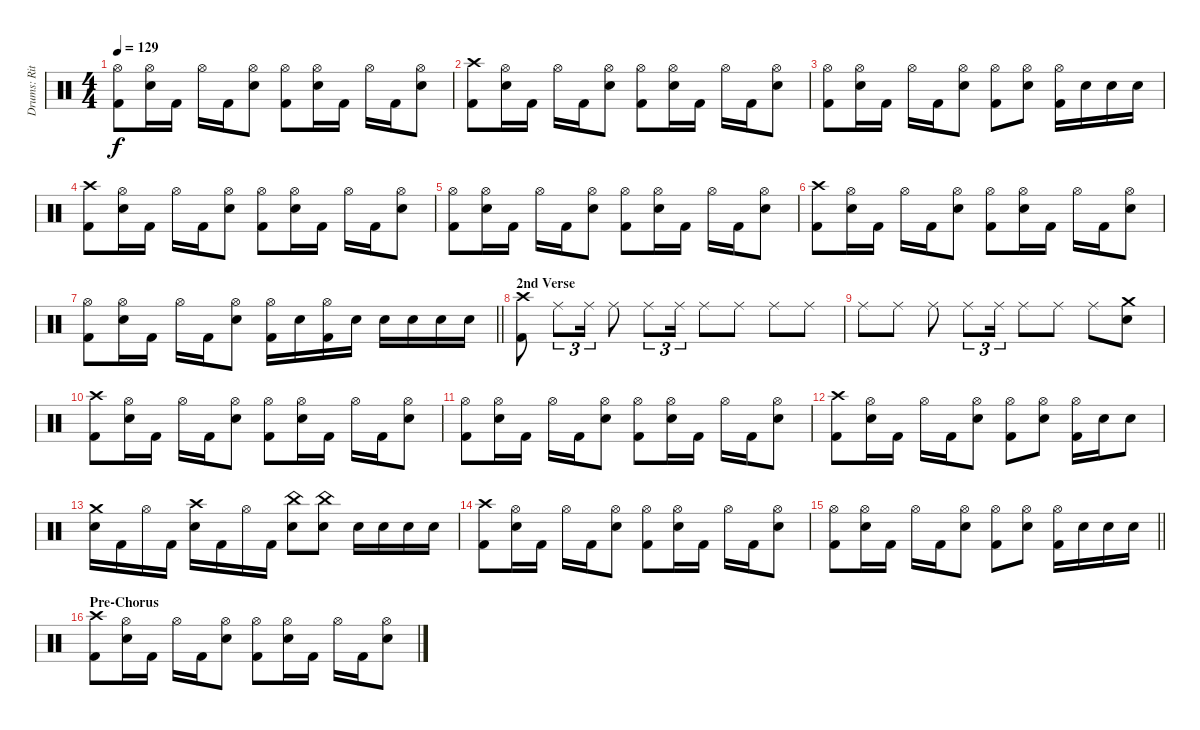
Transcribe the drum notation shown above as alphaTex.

\track ("Drums: Ritsu Tainaka" "Drums: Rit") {instrument percussion}
\staff {score}
\articulation defaults
\ts (4 4)
\tempo 129
\clef neutral
\ks c
("Hi-Hat (open)" "Kick (hit) 2").8{dy f} ("Hi-Hat (open)" "Electric Snare (hit)").16 "Kick (hit) 2".16 "Hi-Hat (open)".16 "Kick (hit) 2".16 ("Hi-Hat (open)" "Electric Snare (hit)").8 ("Hi-Hat (open)" "Kick (hit) 2").8 ("Hi-Hat (open)" "Electric Snare (hit)").16 "Kick (hit) 2".16 "Hi-Hat (open)".16 "Kick (hit) 2".16 ("Hi-Hat (open)" "Electric Snare (hit)").8 |
("Crash high (hit)" "Kick (hit) 2").8 ("Hi-Hat (open)" "Electric Snare (hit)").16 "Kick (hit) 2".16 "Hi-Hat (open)".16 "Kick (hit) 2".16 ("Hi-Hat (open)" "Electric Snare (hit)").8 ("Hi-Hat (open)" "Kick (hit) 2").8 ("Hi-Hat (open)" "Electric Snare (hit)").16 "Kick (hit) 2".16 "Hi-Hat (open)".16 "Kick (hit) 2".16 ("Hi-Hat (open)" "Electric Snare (hit)").8 |
("Hi-Hat (open)" "Kick (hit) 2").8 ("Hi-Hat (open)" "Electric Snare (hit)").16 "Kick (hit) 2".16 "Hi-Hat (open)".16 "Kick (hit) 2".16 ("Hi-Hat (open)" "Electric Snare (hit)").8 ("Hi-Hat (open)" "Kick (hit) 2").8 ("Hi-Hat (open)" "Electric Snare (hit)").8 ("Hi-Hat (open)" "Kick (hit) 2").16 "Electric Snare (hit)".16 "Electric Snare (hit)".16 "Electric Snare (hit)".16 |
("Crash high (hit)" "Kick (hit) 2").8 ("Hi-Hat (open)" "Electric Snare (hit)").16 "Kick (hit) 2".16 "Hi-Hat (open)".16 "Kick (hit) 2".16 ("Hi-Hat (open)" "Electric Snare (hit)").8 ("Hi-Hat (open)" "Kick (hit) 2").8 ("Hi-Hat (open)" "Electric Snare (hit)").16 "Kick (hit) 2".16 "Hi-Hat (open)".16 "Kick (hit) 2".16 ("Hi-Hat (open)" "Electric Snare (hit)").8 |
("Hi-Hat (open)" "Kick (hit) 2").8 ("Hi-Hat (open)" "Electric Snare (hit)").16 "Kick (hit) 2".16 "Hi-Hat (open)".16 "Kick (hit) 2".16 ("Hi-Hat (open)" "Electric Snare (hit)").8 ("Hi-Hat (open)" "Kick (hit) 2").8 ("Hi-Hat (open)" "Electric Snare (hit)").16 "Kick (hit) 2".16 "Hi-Hat (open)".16 "Kick (hit) 2".16 ("Hi-Hat (open)" "Electric Snare (hit)").8 |
("Crash high (hit)" "Kick (hit) 2").8 ("Hi-Hat (open)" "Electric Snare (hit)").16 "Kick (hit) 2".16 "Hi-Hat (open)".16 "Kick (hit) 2".16 ("Hi-Hat (open)" "Electric Snare (hit)").8 ("Hi-Hat (open)" "Kick (hit) 2").8 ("Hi-Hat (open)" "Electric Snare (hit)").16 "Kick (hit) 2".16 "Hi-Hat (open)".16 "Kick (hit) 2".16 ("Hi-Hat (open)" "Electric Snare (hit)").8 |
\barLineRight lightlight
("Hi-Hat (open)" "Kick (hit) 2").8 ("Hi-Hat (open)" "Electric Snare (hit)").16 "Kick (hit) 2".16 "Hi-Hat (open)".16 "Kick (hit) 2".16 ("Hi-Hat (open)" "Electric Snare (hit)").8 ("Hi-Hat (open)" "Kick (hit) 2").16 "Electric Snare (hit)".16 ("Hi-Hat (open)" "Kick (hit) 2").16 "Electric Snare (hit)".16 "Electric Snare (hit)".16 "Electric Snare (hit)".16 "Electric Snare (hit)".16 "Electric Snare (hit)".16 |
\section ("" "2nd Verse")
("Crash high (hit)" "Kick (hit) 2").8 "Ride (middle)".8{tu (3 2)} "Ride (middle)".16{tu (3 2)} "Ride (middle)".8 "Ride (middle)".8{tu (3 2)} "Ride (middle)".16{tu (3 2)} "Ride (middle)".8 "Ride (middle)".8 "Ride (middle)".8 "Ride (middle)".8 |
"Ride (middle)".8 "Ride (middle)".8 "Ride (middle)".8 "Ride (middle)".8{tu (3 2)} "Ride (middle)".16{tu (3 2)} "Ride (middle)".8 "Ride (middle)".8 "Ride (middle)".8 ("Crash medium (hit)" "Electric Snare (hit)").8 |
("Crash high (hit)" "Kick (hit) 2").8 ("Hi-Hat (open)" "Electric Snare (hit)").16 "Kick (hit) 2".16 "Hi-Hat (open)".16 "Kick (hit) 2".16 ("Hi-Hat (open)" "Electric Snare (hit)").8 ("Hi-Hat (open)" "Kick (hit) 2").8 ("Hi-Hat (open)" "Electric Snare (hit)").16 "Kick (hit) 2".16 "Hi-Hat (open)".16 "Kick (hit) 2".16 ("Hi-Hat (open)" "Electric Snare (hit)").8 |
("Hi-Hat (open)" "Kick (hit) 2").8 ("Hi-Hat (open)" "Electric Snare (hit)").16 "Kick (hit) 2".16 "Hi-Hat (open)".16 "Kick (hit) 2".16 ("Hi-Hat (open)" "Electric Snare (hit)").8 ("Hi-Hat (open)" "Kick (hit) 2").8 ("Hi-Hat (open)" "Electric Snare (hit)").16 "Kick (hit) 2".16 "Hi-Hat (open)".16 "Kick (hit) 2".16 ("Hi-Hat (open)" "Electric Snare (hit)").8 |
("Crash high (hit)" "Kick (hit) 2").8 ("Hi-Hat (open)" "Electric Snare (hit)").16 "Kick (hit) 2".16 "Hi-Hat (open)".16 "Kick (hit) 2".16 ("Hi-Hat (open)" "Electric Snare (hit)").8 ("Hi-Hat (open)" "Kick (hit) 2").8 ("Hi-Hat (open)" "Electric Snare (hit)").8 ("Hi-Hat (open)" "Kick (hit) 2").16 "Electric Snare (hit)".16 "Electric Snare (hit)".8 |
("Crash medium (hit)" "Electric Snare (hit)").16 "Kick (hit) 2".16 "Hi-Hat (open)".16 "Kick (hit) 2".16 ("Crash high (hit)" "Electric Snare (hit)").16 "Kick (hit) 2".16 "Hi-Hat (open)".16 "Kick (hit) 2".16 ("China (hit)" "Electric Snare (hit)").8 ("China (hit)" "Electric Snare (hit)").8 "Electric Snare (hit)".16 "Electric Snare (hit)".16 "Electric Snare (hit)".16 "Electric Snare (hit)".16 |
("Crash high (hit)" "Kick (hit) 2").8 ("Hi-Hat (open)" "Electric Snare (hit)").16 "Kick (hit) 2".16 "Hi-Hat (open)".16 "Kick (hit) 2".16 ("Hi-Hat (open)" "Electric Snare (hit)").8 ("Hi-Hat (open)" "Kick (hit) 2").8 ("Hi-Hat (open)" "Electric Snare (hit)").16 "Kick (hit) 2".16 "Hi-Hat (open)".16 "Kick (hit) 2".16 ("Hi-Hat (open)" "Electric Snare (hit)").8 |
\barLineRight lightlight
("Hi-Hat (open)" "Kick (hit) 2").8 ("Hi-Hat (open)" "Electric Snare (hit)").16 "Kick (hit) 2".16 "Hi-Hat (open)".16 "Kick (hit) 2".16 ("Hi-Hat (open)" "Electric Snare (hit)").8 ("Hi-Hat (open)" "Kick (hit) 2").8 ("Hi-Hat (open)" "Electric Snare (hit)").8 ("Hi-Hat (open)" "Kick (hit) 2").16 "Electric Snare (hit)".16 "Electric Snare (hit)".16 "Electric Snare (hit)".16 |
\section ("" "Pre-Chorus")
("Crash high (hit)" "Kick (hit) 2").8 ("Hi-Hat (open)" "Electric Snare (hit)").16 "Kick (hit) 2".16 "Hi-Hat (open)".16 "Kick (hit) 2".16 ("Hi-Hat (open)" "Electric Snare (hit)").8 ("Hi-Hat (open)" "Kick (hit) 2").8 ("Hi-Hat (open)" "Electric Snare (hit)").16 "Kick (hit) 2".16 "Hi-Hat (open)".16 "Kick (hit) 2".16 ("Hi-Hat (open)" "Electric Snare (hit)").8
